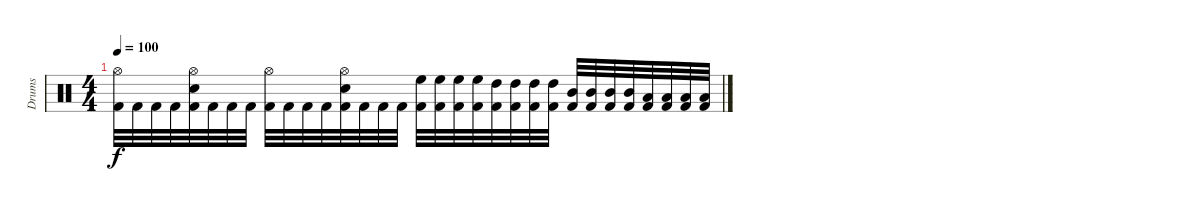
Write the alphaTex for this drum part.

\track ("Drums" "Drums") {instrument percussion}
\staff {score}
\articulation defaults
\ts (4 4)
\tempo 100
\clef neutral
\ks c
("Hi-Hat (open)" "Kick (hit) 2").32{dy f} "Kick (hit) 2".32 "Kick (hit) 2".32 "Kick (hit) 2".32 ("Hi-Hat (open)" "Electric Snare (hit)" "Kick (hit) 2").32 "Kick (hit) 2".32 "Kick (hit) 2".32 "Kick (hit) 2".32 ("Hi-Hat (open)" "Kick (hit) 2").32 "Kick (hit) 2".32 "Kick (hit) 2".32 "Kick (hit) 2".32 ("Hi-Hat (open)" "Electric Snare (hit)" "Kick (hit) 2").32 "Kick (hit) 2".32 "Kick (hit) 2".32 "Kick (hit) 2".32 ("High Floor Tom (hit)" "Kick (hit) 2").32 ("High Floor Tom (hit)" "Kick (hit) 2").32 ("High Floor Tom (hit)" "Kick (hit) 2").32 ("High Floor Tom (hit)" "Kick (hit) 2").32 ("High Tom (hit)" "Kick (hit) 2").32 ("High Tom (hit)" "Kick (hit) 2").32 ("High Tom (hit)" "Kick (hit) 2").32 ("High Tom (hit)" "Kick (hit) 2").32 ("Mid Tom (hit)" "Kick (hit) 2").32 ("Mid Tom (hit)" "Kick (hit) 2").32 ("Mid Tom (hit)" "Kick (hit) 2").32 ("Mid Tom (hit)" "Kick (hit) 2").32 ("Low Tom (hit)" "Kick (hit) 2").32 ("Low Tom (hit)" "Kick (hit) 2").32 ("Low Tom (hit)" "Kick (hit) 2").32 ("Low Tom (hit)" "Kick (hit) 2").32
